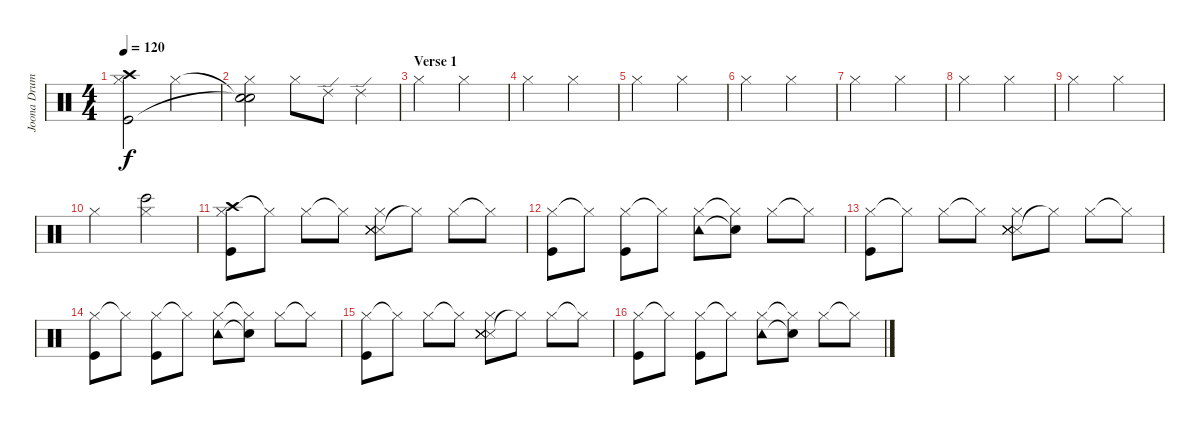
\track ("Joona Drums" "Joona Drum") {instrument percussion}
\staff {score}
\articulation defaults
\ts (4 4)
\tempo 120
\clef neutral
\ks c
("Crash high (hit)" "Hi-Hat (closed)" "Kick (hit)").2{dy f} "Hi-Hat (closed)".2 |
("Snare (hit)"{t} "Hi-Hat (closed)" "Snare (hit)"{t}).2 "Hi-Hat (closed)".8 "Ride (edge) 2".8 "Ride (edge) 2".4 |
\section ("" "Verse 1")
"Hi-Hat (closed)".2 "Hi-Hat (closed)".2 |
"Hi-Hat (closed)".2 "Hi-Hat (closed)".2 |
"Hi-Hat (closed)".2 "Hi-Hat (closed)".2 |
"Hi-Hat (closed)".2 "Hi-Hat (closed)".2 |
"Hi-Hat (closed)".2 "Hi-Hat (closed)".2 |
"Hi-Hat (closed)".2 "Hi-Hat (closed)".2 |
"Hi-Hat (closed)".2 "Hi-Hat (closed)".2 |
"Hi-Hat (closed)".2 ("Hi-Hat (closed)" "Bongo High (hit)").2 |
("Crash high (hit)" "Hi-Hat (closed)" "Kick (hit)").8 "Hi-Hat (closed)"{t}.8 "Hi-Hat (closed)".8 "Hi-Hat (closed)"{t}.8 ("Snare (side stick) 3" "Hi-Hat (closed)" "Snare (side stick) 3" "Snare (side stick) 3" "Snare (side stick) 3" "Snare (side stick) 3").8 "Hi-Hat (closed)"{t}.8 "Hi-Hat (closed)".8 "Hi-Hat (closed)"{t}.8 |
("Hi-Hat (closed)" "Kick (hit)").8 "Hi-Hat (closed)"{t}.8 ("Hi-Hat (closed)" "Kick (hit)").8 "Hi-Hat (closed)"{t}.8 ("Hi-Hat (closed)" "Tambourine (hit)").8 ("Hi-Hat (closed)"{t} "Snare (hit)"{t}).8 "Hi-Hat (closed)".8 "Hi-Hat (closed)"{t}.8 |
("Hi-Hat (closed)" "Kick (hit)").8 "Hi-Hat (closed)"{t}.8 "Hi-Hat (closed)".8 "Hi-Hat (closed)"{t}.8 ("Snare (side stick) 3" "Hi-Hat (closed)" "Snare (side stick) 3" "Snare (side stick) 3" "Snare (side stick) 3" "Snare (side stick) 3").8 "Hi-Hat (closed)"{t}.8 "Hi-Hat (closed)".8 "Hi-Hat (closed)"{t}.8 |
("Hi-Hat (closed)" "Kick (hit)").8 "Hi-Hat (closed)"{t}.8 ("Hi-Hat (closed)" "Kick (hit)").8 "Hi-Hat (closed)"{t}.8 ("Hi-Hat (closed)" "Tambourine (hit)").8 ("Hi-Hat (closed)"{t} "Snare (hit)"{t}).8 "Hi-Hat (closed)".8 "Hi-Hat (closed)"{t}.8 |
("Hi-Hat (closed)" "Kick (hit)").8 "Hi-Hat (closed)"{t}.8 "Hi-Hat (closed)".8 "Hi-Hat (closed)"{t}.8 ("Snare (side stick) 3" "Hi-Hat (closed)" "Snare (side stick) 3" "Snare (side stick) 3" "Snare (side stick) 3" "Snare (side stick) 3").8 "Hi-Hat (closed)"{t}.8 "Hi-Hat (closed)".8 "Hi-Hat (closed)"{t}.8 |
("Hi-Hat (closed)" "Kick (hit)").8 "Hi-Hat (closed)"{t}.8 ("Hi-Hat (closed)" "Kick (hit)").8 "Hi-Hat (closed)"{t}.8 ("Hi-Hat (closed)" "Tambourine (hit)").8 ("Hi-Hat (closed)"{t} "Snare (hit)"{t}).8 "Hi-Hat (closed)".8 "Hi-Hat (closed)"{t}.8
